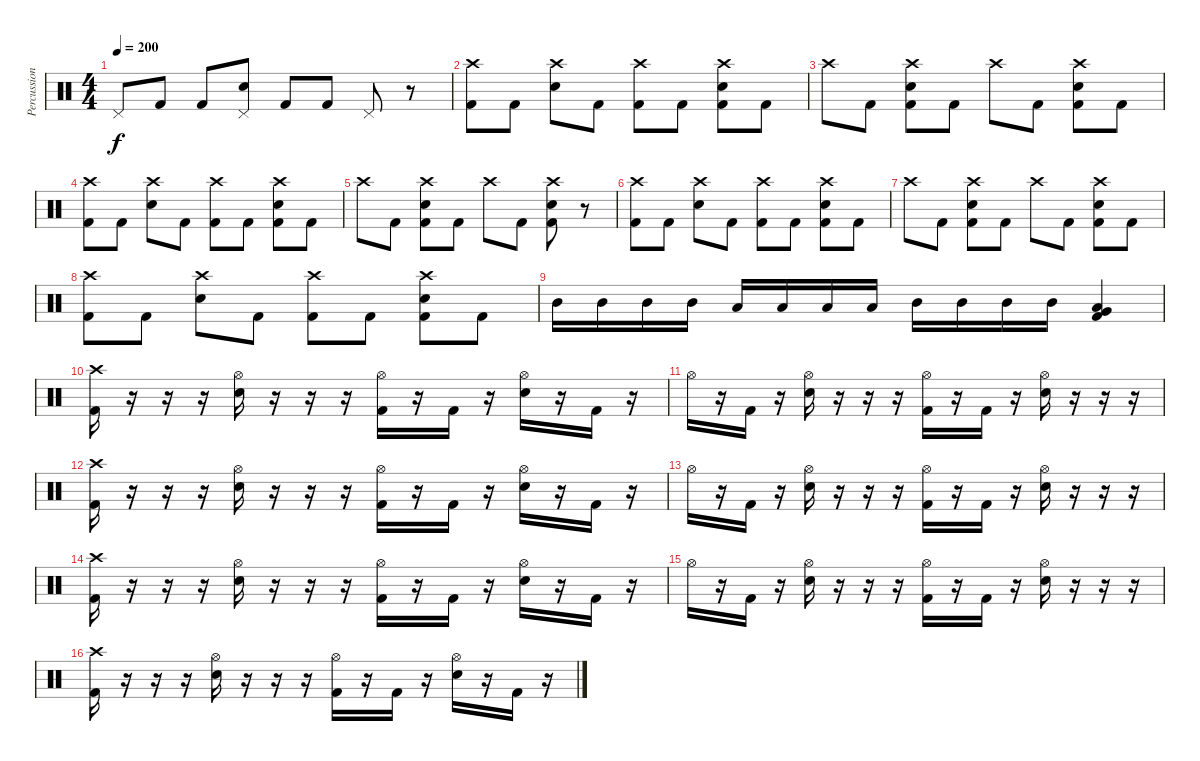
\track ("Percussion" "Percussion") {instrument percussion}
\staff {score}
\articulation defaults
\ts (4 4)
\tempo 200
\clef neutral
\ks c "Pedal Hi-Hat (hit)".8{dy f} "Kick (hit) 2".8 "Kick (hit) 2".8
("Pedal Hi-Hat (hit)" "Snare (hit) 2").8 "Kick (hit) 2".8 "Kick (hit) 2".8 "Pedal Hi-Hat (hit)".8 r.8 |
("Crash high (hit)" "Kick (hit) 2").8 "Kick (hit) 2".8 ("Crash high (hit)" "Snare (hit) 2").8 "Kick (hit) 2".8 ("Crash high (hit)" "Kick (hit) 2").8 "Kick (hit) 2".8 ("Crash high (hit)" "Snare (hit) 2" "Kick (hit) 2").8 "Kick (hit) 2".8 |
"Crash high (hit)".8 "Kick (hit) 2".8 ("Crash high (hit)" "Snare (hit) 2" "Kick (hit) 2").8 "Kick (hit) 2".8 "Crash high (hit)".8 "Kick (hit) 2".8 ("Crash high (hit)" "Snare (hit) 2" "Kick (hit) 2").8 "Kick (hit) 2".8 |
("Crash high (hit)" "Kick (hit) 2").8 "Kick (hit) 2".8 ("Crash high (hit)" "Snare (hit) 2").8 "Kick (hit) 2".8 ("Crash high (hit)" "Kick (hit) 2").8 "Kick (hit) 2".8 ("Crash high (hit)" "Snare (hit) 2" "Kick (hit) 2").8 "Kick (hit) 2".8 |
"Crash high (hit)".8 "Kick (hit) 2".8 ("Crash high (hit)" "Snare (hit) 2" "Kick (hit) 2").8 "Kick (hit) 2".8 "Crash high (hit)".8 "Kick (hit) 2".8 ("Crash high (hit)" "Snare (hit) 2" "Kick (hit) 2").8 r.8 |
("Crash high (hit)" "Kick (hit) 2").8 "Kick (hit) 2".8 ("Crash high (hit)" "Snare (hit) 2").8 "Kick (hit) 2".8 ("Crash high (hit)" "Kick (hit) 2").8 "Kick (hit) 2".8 ("Crash high (hit)" "Snare (hit) 2" "Kick (hit) 2").8 "Kick (hit) 2".8 |
"Crash high (hit)".8 "Kick (hit) 2".8 ("Crash high (hit)" "Snare (hit) 2" "Kick (hit) 2").8 "Kick (hit) 2".8 "Crash high (hit)".8 "Kick (hit) 2".8 ("Crash high (hit)" "Snare (hit) 2" "Kick (hit) 2").8 "Kick (hit) 2".8 |
("Crash high (hit)" "Kick (hit) 2").8 "Kick (hit) 2".8 ("Crash high (hit)" "Snare (hit) 2").8 "Kick (hit) 2".8 ("Crash high (hit)" "Kick (hit) 2").8 "Kick (hit) 2".8 ("Crash high (hit)" "Snare (hit) 2" "Kick (hit) 2").8 "Kick (hit) 2".8 |
"Mid Tom (hit)".16 "Mid Tom (hit)".16 "Mid Tom (hit)".16 "Mid Tom (hit)".16 "Low Tom (hit)".16 "Low Tom (hit)".16 "Low Tom (hit)".16 "Low Tom (hit)".16 "Mid Tom (hit)".16 "Mid Tom (hit)".16 "Mid Tom (hit)".16 "Mid Tom (hit)".16 ("Very Low Tom (hit)" "Low Floor Tom (hit)" "Kick (hit) 2").4 |
("Crash high (hit)" "Kick (hit) 2").16 r.16 r.16 r.16 ("Hi-Hat (open)" "Snare (hit) 2").16 r.16 r.16 r.16 ("Hi-Hat (open)" "Kick (hit) 2").16 r.16 "Kick (hit) 2".16 r.16 ("Hi-Hat (open)" "Snare (hit) 2").16 r.16 "Kick (hit) 2".16 r.16 |
"Hi-Hat (open)".16 r.16 "Kick (hit) 2".16 r.16 ("Hi-Hat (open)" "Snare (hit) 2").16 r.16 r.16 r.16 ("Hi-Hat (open)" "Kick (hit) 2").16 r.16 "Kick (hit) 2".16 r.16 ("Hi-Hat (open)" "Snare (hit) 2").16 r.16 r.16 r.16 |
("Crash high (hit)" "Kick (hit) 2").16 r.16 r.16 r.16 ("Hi-Hat (open)" "Snare (hit) 2").16 r.16 r.16 r.16 ("Hi-Hat (open)" "Kick (hit) 2").16 r.16 "Kick (hit) 2".16 r.16 ("Hi-Hat (open)" "Snare (hit) 2").16 r.16 "Kick (hit) 2".16 r.16 |
"Hi-Hat (open)".16 r.16 "Kick (hit) 2".16 r.16 ("Hi-Hat (open)" "Snare (hit) 2").16 r.16 r.16 r.16 ("Hi-Hat (open)" "Kick (hit) 2").16 r.16 "Kick (hit) 2".16 r.16 ("Hi-Hat (open)" "Snare (hit) 2").16 r.16 r.16 r.16 |
("Crash high (hit)" "Kick (hit) 2").16 r.16 r.16 r.16 ("Hi-Hat (open)" "Snare (hit) 2").16 r.16 r.16 r.16 ("Hi-Hat (open)" "Kick (hit) 2").16 r.16 "Kick (hit) 2".16 r.16 ("Hi-Hat (open)" "Snare (hit) 2").16 r.16 "Kick (hit) 2".16 r.16 |
"Hi-Hat (open)".16 r.16 "Kick (hit) 2".16 r.16 ("Hi-Hat (open)" "Snare (hit) 2").16 r.16 r.16 r.16 ("Hi-Hat (open)" "Kick (hit) 2").16 r.16 "Kick (hit) 2".16 r.16 ("Hi-Hat (open)" "Snare (hit) 2").16 r.16 r.16 r.16 |
("Crash high (hit)" "Kick (hit) 2").16 r.16 r.16 r.16 ("Hi-Hat (open)" "Snare (hit) 2").16 r.16 r.16 r.16 ("Hi-Hat (open)" "Kick (hit) 2").16 r.16 "Kick (hit) 2".16 r.16 ("Hi-Hat (open)" "Snare (hit) 2").16 r.16 "Kick (hit) 2".16 r.16
